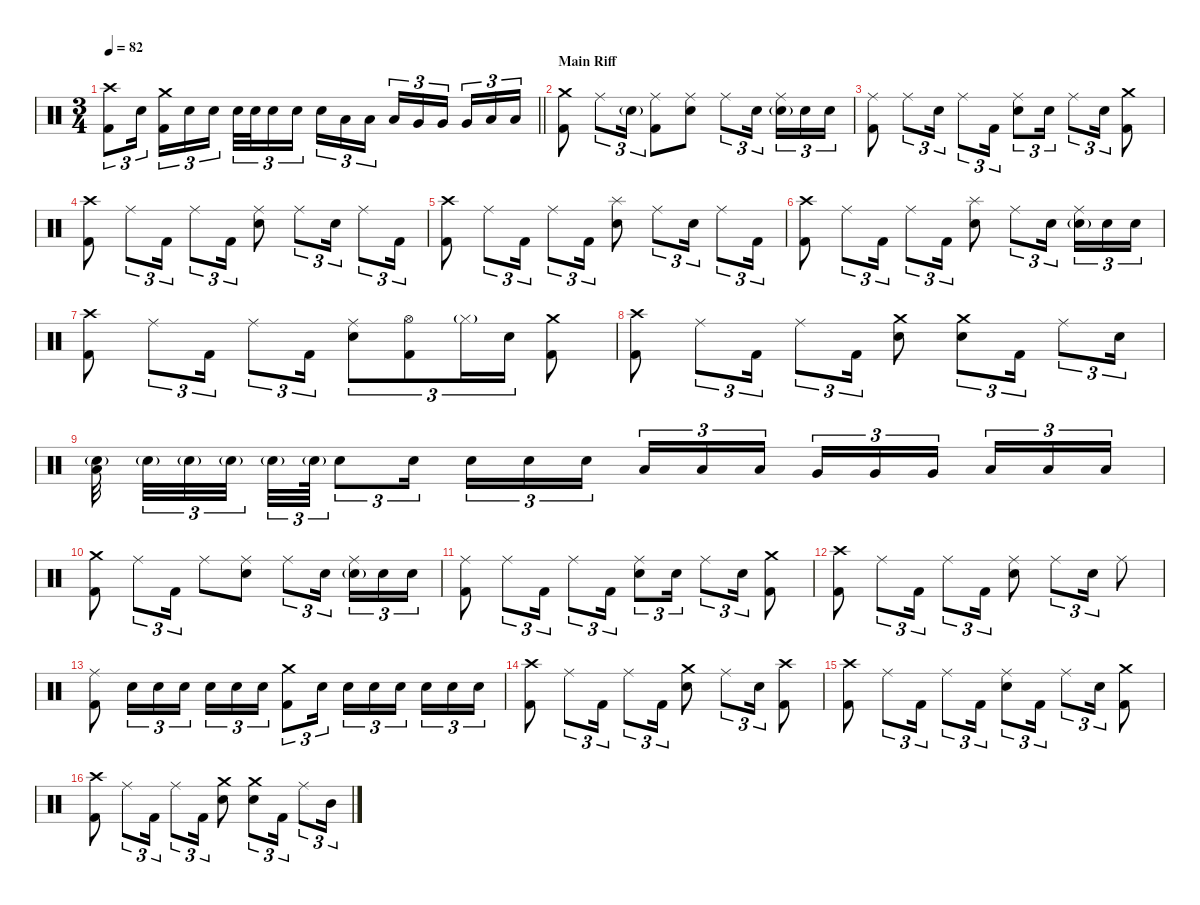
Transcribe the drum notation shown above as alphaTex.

\defaultSystemsLayout 4
\hideDynamics
\bracketExtendMode nobrackets
\singleTrackTrackNamePolicy hidden
\multiTrackTrackNamePolicy hidden
\firstSystemTrackNameMode fullname
\otherSystemsTrackNameOrientation horizontal
\track ("Drums" "drm.") {defaultSystemsLayout 4 instrument percussion}
\staff {score}
\articulation defaults
\ts (3 4)
\tempo 82
\clef neutral
\barLineRight lightlight
\ks c
("Crash high (hit)" "Kick (hit) 2").8{tu (3 2) dy f beam Down} "Snare (hit) 2".16{tu (3 2) beam Down} ("Crash medium (hit)" "Kick (hit) 2").16{tu (3 2) beam Down} "Snare (hit) 2".16{tu (3 2) beam Down} "Snare (hit) 2".16{tu (3 2) beam Down} "Snare (hit) 2".32{tu (3 2) beam Down} "Snare (hit) 2".32{tu (3 2) beam Down} "Snare (hit) 2".16{tu (3 2) beam Down} "Snare (hit) 2".16{tu (3 2) beam Down} "Snare (hit) 2".16{tu (3 2) beam Down} "Low Tom (hit)".16{tu (3 2) beam Down} "Low Tom (hit)".16{tu (3 2) beam Down} "Low Tom (hit)".16{tu (3 2) beam Up} "Very Low Tom (hit)".16{tu (3 2) beam Up} "Very Low Tom (hit)".16{tu (3 2) beam Up} "Very Low Tom (hit)".16{tu (3 2) beam Up} "Low Floor Tom (hit)".16{tu (3 2) beam Up} "Low Floor Tom (hit)".16{tu (3 2) beam Up} |
\section ("" "Main Riff")
("Crash medium (hit)" "Kick (hit) 2").8{beam Down} "Ride (middle)".8{tu (3 2) beam Down} "Snare (hit) 2"{g}.16{tu (3 2) dy mf beam Down} ("Ride (middle)" "Kick (hit) 2").8{dy f beam Down} ("Ride (middle)" "Snare (hit) 2").8{beam Down} "Ride (middle)".8{tu (3 2) beam Down} "Snare (hit) 2".16{tu (3 2) beam Down} ("Ride (middle)" "Snare (hit) 2"{g}).16{tu (3 2) beam Down} "Snare (hit) 2".16{tu (3 2) beam Down} "Snare (hit) 2".16{tu (3 2) beam Down} |
("Ride (middle)" "Kick (hit) 2").8{beam Down} "Ride (middle)".8{tu (3 2) beam Down} "Snare (hit) 2".16{tu (3 2) beam Down} "Ride (middle)".8{tu (3 2) beam Down} "Kick (hit) 2".16{tu (3 2) beam Down} ("Ride (middle)" "Snare (hit) 2").8{tu (3 2) beam Down} "Snare (hit) 2".16{tu (3 2) beam Down} "Ride (middle)".8{tu (3 2) beam Down} "Snare (hit) 2".16{tu (3 2) beam Down} ("Crash medium (hit)" "Kick (hit) 2").8{beam Down} |
("Crash high (hit)" "Kick (hit) 2").8{beam Down} "Ride (middle)".8{tu (3 2) beam Down} "Kick (hit) 2".16{tu (3 2) beam Down} "Ride (middle)".8{tu (3 2) beam Down} "Kick (hit) 2".16{tu (3 2) beam Down} ("Ride (middle)" "Snare (hit) 2").8{beam Down} "Ride (middle)".8{tu (3 2) beam Down} "Snare (hit) 2".16{tu (3 2) beam Down} "Ride (middle)".8{tu (3 2) beam Down} "Kick (hit) 2".16{tu (3 2) beam Down} |
("Crash high (hit)" "Kick (hit) 2").8{beam Down} "Ride (middle)".8{tu (3 2) beam Down} "Kick (hit) 2".16{tu (3 2) beam Down} "Ride (middle)".8{tu (3 2) beam Down} "Kick (hit) 2".16{tu (3 2) beam Down} ("Splash (hit)" "Snare (hit) 2").8{beam Down} "Ride (middle)".8{tu (3 2) beam Down} "Snare (hit) 2".16{tu (3 2) beam Down} "Ride (middle)".8{tu (3 2) beam Down} "Kick (hit) 2".16{tu (3 2) beam Down} |
("Crash high (hit)" "Kick (hit) 2").8{beam Down} "Ride (middle)".8{tu (3 2) beam Down} "Kick (hit) 2".16{tu (3 2) beam Down} "Ride (middle)".8{tu (3 2) beam Down} "Kick (hit) 2".16{tu (3 2) beam Down} ("Splash (hit)" "Snare (hit) 2").8{beam Down} "Ride (middle)".8{tu (3 2) beam Down} "Snare (hit) 2".16{tu (3 2) beam Down} ("Ride (middle)" "Snare (hit) 2"{g}).16{tu (3 2) beam Down} "Snare (hit) 2".16{tu (3 2) beam Down} "Snare (hit) 2".16{tu (3 2) beam Down} |
("Crash high (hit)" "Kick (hit) 2").8{beam Down} "Ride (middle)".8{tu (3 2) beam Down} "Kick (hit) 2".16{tu (3 2) beam Down} "Ride (middle)".8{tu (3 2) beam Down} "Kick (hit) 2".16{tu (3 2) beam Down} ("Ride (middle)" "Snare (hit) 2").8{tu (3 2) beam Down} ("Hi-Hat (open)" "Kick (hit) 2").8{tu (3 2) beam Down} "Hi-Hat (closed)"{g}.16{tu (3 2) dy pp beam Down} "Snare (hit) 2".16{tu (3 2) dy f beam Down} ("Crash medium (hit)" "Kick (hit) 2").8{beam Down} |
("Crash high (hit)" "Kick (hit) 2").8{beam Down} "Ride (middle)".8{tu (3 2) beam Down} "Kick (hit) 2".16{tu (3 2) beam Down} "Ride (middle)".8{tu (3 2) beam Down} "Kick (hit) 2".16{tu (3 2) beam Down} ("Crash medium (hit)" "Snare (hit) 2").8{beam Down} ("Crash medium (hit)" "Snare (hit) 2").8{tu (3 2) beam Down} "Kick (hit) 2".16{tu (3 2) beam Down} "Ride (middle)".8{tu (3 2) beam Down} "Snare (hit) 2".16{tu (3 2) beam Down} |
("Low Floor Tom (hit)" "Snare (hit) 2"{g}).32{beam Down} "Snare (hit) 2"{g}.32{tu (3 2) dy mf beam Down} "Snare (hit) 2"{g}.32{tu (3 2) beam Down} "Snare (hit) 2"{g}.32{tu (3 2) beam Down} "Snare (hit) 2"{g}.32{tu (3 2) beam Down} "Snare (hit) 2"{g}.64{tu (3 2) beam Down} "Snare (hit) 2".8{tu (3 2) dy f beam Down} "Snare (hit) 2".16{tu (3 2) beam Down} "Snare (hit) 2".16{tu (3 2) beam Down} "Snare (hit) 2".16{tu (3 2) beam Down} "Snare (hit) 2".16{tu (3 2) beam Down} "Low Tom (hit)".16{tu (3 2) beam Up} "Low Tom (hit)".16{tu (3 2) beam Up} "Low Tom (hit)".16{tu (3 2) beam Up} "Very Low Tom (hit)".16{tu (3 2) beam Up} "Very Low Tom (hit)".16{tu (3 2) beam Up} "Very Low Tom (hit)".16{tu (3 2) beam Up} "Low Floor Tom (hit)".16{tu (3 2) beam Up} "Low Floor Tom (hit)".16{tu (3 2) beam Up} "Low Floor Tom (hit)".16{tu (3 2) beam Up} |
("Crash medium (hit)" "Kick (hit) 2").8{beam Down} "Ride (middle)".8{tu (3 2) beam Down} "Kick (hit) 2".16{tu (3 2) beam Down} "Ride (middle)".8{beam Down} ("Ride (middle)" "Snare (hit) 2").8{beam Down} "Ride (middle)".8{tu (3 2) beam Down} "Snare (hit) 2".16{tu (3 2) beam Down} ("Ride (middle)" "Snare (hit) 2"{g}).16{tu (3 2) beam Down} "Snare (hit) 2".16{tu (3 2) beam Down} "Snare (hit) 2".16{tu (3 2) beam Down} |
("Ride (middle)" "Kick (hit) 2").8{beam Down} "Ride (middle)".8{tu (3 2) beam Down} "Kick (hit) 2".16{tu (3 2) beam Down} "Ride (middle)".8{tu (3 2) beam Down} "Kick (hit) 2".16{tu (3 2) beam Down} ("Ride (middle)" "Snare (hit) 2").8{tu (3 2) beam Down} "Snare (hit) 2".16{tu (3 2) beam Down} "Ride (middle)".8{tu (3 2) beam Down} "Snare (hit) 2".16{tu (3 2) beam Down} ("Crash medium (hit)" "Kick (hit) 2").8{beam Down} |
("Crash high (hit)" "Kick (hit) 2").8{beam Down} "Ride (middle)".8{tu (3 2) beam Down} "Kick (hit) 2".16{tu (3 2) beam Down} "Ride (middle)".8{tu (3 2) beam Down} "Kick (hit) 2".16{tu (3 2) beam Down} ("Ride (middle)" "Snare (hit) 2").8{beam Down} "Ride (middle)".8{tu (3 2) beam Down} "Snare (hit) 2".16{tu (3 2) beam Down} "Ride (middle)".8{beam Down} |
("Ride (middle)" "Kick (hit) 2").8{beam Down} "Snare (hit) 2".16{tu (3 2) beam Down} "Snare (hit) 2".16{tu (3 2) beam Down} "Snare (hit) 2".16{tu (3 2) beam Down} "Snare (hit) 2".16{tu (3 2) beam Down} "Snare (hit) 2".16{tu (3 2) beam Down} "Snare (hit) 2".16{tu (3 2) beam Down} ("Crash medium (hit)" "Kick (hit) 2").8{tu (3 2) beam Down} "Snare (hit) 2".16{tu (3 2) beam Down} "Snare (hit) 2".16{tu (3 2) beam Down} "Snare (hit) 2".16{tu (3 2) beam Down} "Snare (hit) 2".16{tu (3 2) beam Down} "Snare (hit) 2".16{tu (3 2) beam Down} "Snare (hit) 2".16{tu (3 2) beam Down} "Snare (hit) 2".16{tu (3 2) beam Down} |
("Crash high (hit)" "Kick (hit) 2").8{beam Down} "Ride (middle)".8{tu (3 2) beam Down} "Kick (hit) 2".16{tu (3 2) beam Down} "Ride (middle)".8{tu (3 2) beam Down} "Kick (hit) 2".16{tu (3 2) beam Down} ("Crash medium (hit)" "Snare (hit) 2").8{beam Down} "Ride (middle)".8{tu (3 2) beam Down} "Snare (hit) 2".16{tu (3 2) beam Down} ("Crash high (hit)" "Kick (hit) 2").8{beam Down} |
("Crash high (hit)" "Kick (hit) 2").8{beam Down} "Ride (middle)".8{tu (3 2) beam Down} "Kick (hit) 2".16{tu (3 2) beam Down} "Ride (middle)".8{tu (3 2) beam Down} "Kick (hit) 2".16{tu (3 2) beam Down} ("Ride (middle)" "Snare (hit) 2").8{tu (3 2) beam Down} "Kick (hit) 2".16{tu (3 2) beam Down} "Ride (middle)".8{tu (3 2) beam Down} "Snare (hit) 2".16{tu (3 2) beam Down} ("Crash medium (hit)" "Kick (hit) 2").8{beam Down} |
("Crash high (hit)" "Kick (hit) 2").8{beam Down} "Ride (middle)".8{tu (3 2) beam Down} "Kick (hit) 2".16{tu (3 2) beam Down} "Ride (middle)".8{tu (3 2) beam Down} "Kick (hit) 2".16{tu (3 2) beam Down} ("Crash medium (hit)" "Snare (hit) 2").8{beam Down} ("Crash medium (hit)" "Snare (hit) 2").8{tu (3 2) beam Down} "Kick (hit) 2".16{tu (3 2) beam Down} "Ride (middle)".8{tu (3 2) beam Down} "Mid Tom (hit)".16{tu (3 2) beam Down}
